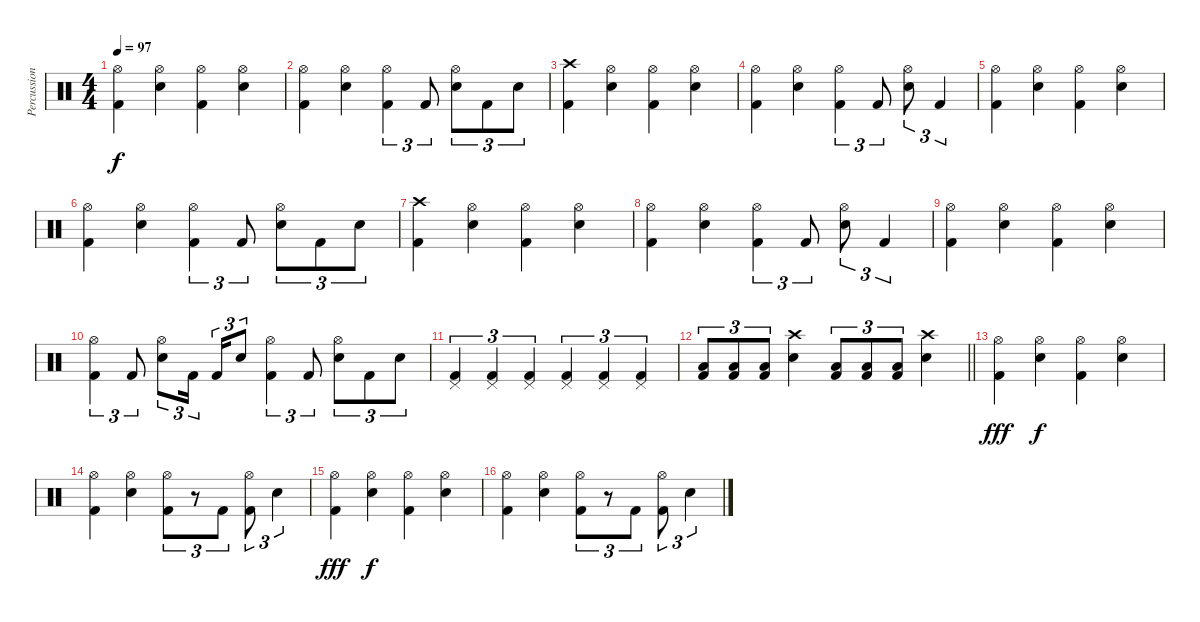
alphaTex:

\track ("Percussion" "Percussion") {instrument percussion}
\staff {score}
\articulation defaults
\ts (4 4)
\tempo 97
\clef neutral
\ks c
("Hi-Hat (open)" "Kick (hit) 2").4{dy f} ("Hi-Hat (open)" "Snare (hit) 2").4 ("Hi-Hat (open)" "Kick (hit) 2").4 ("Hi-Hat (open)" "Snare (hit) 2").4 |
("Hi-Hat (open)" "Kick (hit) 2").4 ("Hi-Hat (open)" "Snare (hit) 2").4 ("Hi-Hat (open)" "Kick (hit) 2").4{tu (3 2)} "Kick (hit) 2".8{tu (3 2)} ("Hi-Hat (open)" "Snare (hit) 2").8{tu (3 2)} "Kick (hit) 2".8{tu (3 2)} "Snare (hit) 2".8{tu (3 2)} |
("Crash high (hit)" "Kick (hit) 2").4 ("Hi-Hat (open)" "Snare (hit) 2").4 ("Hi-Hat (open)" "Kick (hit) 2").4 ("Hi-Hat (open)" "Snare (hit) 2").4 |
("Hi-Hat (open)" "Kick (hit) 2").4 ("Hi-Hat (open)" "Snare (hit) 2").4 ("Hi-Hat (open)" "Kick (hit) 2").4{tu (3 2)} "Kick (hit) 2".8{tu (3 2)} ("Hi-Hat (open)" "Snare (hit) 2").8{tu (3 2)} "Kick (hit) 2".4{tu (3 2)} |
("Hi-Hat (open)" "Kick (hit) 2").4 ("Hi-Hat (open)" "Snare (hit) 2").4 ("Hi-Hat (open)" "Kick (hit) 2").4 ("Hi-Hat (open)" "Snare (hit) 2").4 |
("Hi-Hat (open)" "Kick (hit) 2").4 ("Hi-Hat (open)" "Snare (hit) 2").4 ("Hi-Hat (open)" "Kick (hit) 2").4{tu (3 2)} "Kick (hit) 2".8{tu (3 2)} ("Hi-Hat (open)" "Snare (hit) 2").8{tu (3 2)} "Kick (hit) 2".8{tu (3 2)} "Snare (hit) 2".8{tu (3 2)} |
("Crash high (hit)" "Kick (hit) 2").4 ("Hi-Hat (open)" "Snare (hit) 2").4 ("Hi-Hat (open)" "Kick (hit) 2").4 ("Hi-Hat (open)" "Snare (hit) 2").4 |
("Hi-Hat (open)" "Kick (hit) 2").4 ("Hi-Hat (open)" "Snare (hit) 2").4 ("Hi-Hat (open)" "Kick (hit) 2").4{tu (3 2)} "Kick (hit) 2".8{tu (3 2)} ("Hi-Hat (open)" "Snare (hit) 2").8{tu (3 2)} "Kick (hit) 2".4{tu (3 2)} |
("Hi-Hat (open)" "Kick (hit) 2").4 ("Hi-Hat (open)" "Snare (hit) 2").4 ("Hi-Hat (open)" "Kick (hit) 2").4 ("Hi-Hat (open)" "Snare (hit) 2").4 |
("Hi-Hat (open)" "Kick (hit) 2").4{tu (3 2)} "Kick (hit) 2".8{tu (3 2)} ("Hi-Hat (open)" "Snare (hit) 2").8{tu (3 2)} "Kick (hit) 2".16{tu (3 2)} "Kick (hit) 2".16{tu (3 2)} "Snare (hit) 2".8{tu (3 2)} ("Hi-Hat (open)" "Kick (hit) 2").4{tu (3 2)} "Kick (hit) 2".8{tu (3 2)} ("Hi-Hat (open)" "Snare (hit) 2").8{tu (3 2)} "Kick (hit) 2".8{tu (3 2)} "Snare (hit) 2".8{tu (3 2)} |
("Pedal Hi-Hat (hit)" "Kick (hit) 2").4{tu (3 2)} ("Pedal Hi-Hat (hit)" "Kick (hit) 2").4{tu (3 2)} ("Pedal Hi-Hat (hit)" "Kick (hit) 2").4{tu (3 2)} ("Pedal Hi-Hat (hit)" "Kick (hit) 2").4{tu (3 2)} ("Pedal Hi-Hat (hit)" "Kick (hit) 2").4{tu (3 2)} ("Pedal Hi-Hat (hit)" "Kick (hit) 2").4{tu (3 2)} |
\barLineRight lightlight
("Low Floor Tom (hit)" "Kick (hit) 2").8{tu (3 2)} ("Low Floor Tom (hit)" "Kick (hit) 2").8{tu (3 2)} ("Low Floor Tom (hit)" "Kick (hit) 2").8{tu (3 2)} ("Crash high (hit)" "Snare (hit) 2").4 ("Low Floor Tom (hit)" "Kick (hit) 2").8{tu (3 2)} ("Low Floor Tom (hit)" "Kick (hit) 2").8{tu (3 2)} ("Low Floor Tom (hit)" "Kick (hit) 2").8{tu (3 2)} ("Crash high (hit)" "Snare (hit) 2").4 |
("Hi-Hat (open)" "Kick (hit) 2").4{dy fff} ("Hi-Hat (open)" "Snare (hit) 2").4{dy f} ("Hi-Hat (open)" "Kick (hit) 2").4 ("Hi-Hat (open)" "Snare (hit) 2").4 |
("Hi-Hat (open)" "Kick (hit) 2").4 ("Hi-Hat (open)" "Snare (hit) 2").4 ("Hi-Hat (open)" "Kick (hit) 2").8{tu (3 2)} r.8{tu (3 2)} "Kick (hit) 2".8{tu (3 2)} ("Hi-Hat (open)" "Kick (hit) 2").8{tu (3 2)} "Snare (hit) 2".4{tu (3 2)} |
("Hi-Hat (open)" "Kick (hit) 2").4{dy fff} ("Hi-Hat (open)" "Snare (hit) 2").4{dy f} ("Hi-Hat (open)" "Kick (hit) 2").4 ("Hi-Hat (open)" "Snare (hit) 2").4 |
("Hi-Hat (open)" "Kick (hit) 2").4 ("Hi-Hat (open)" "Snare (hit) 2").4 ("Hi-Hat (open)" "Kick (hit) 2").8{tu (3 2)} r.8{tu (3 2)} "Kick (hit) 2".8{tu (3 2)} ("Hi-Hat (open)" "Kick (hit) 2").8{tu (3 2)} "Snare (hit) 2".4{tu (3 2)}
